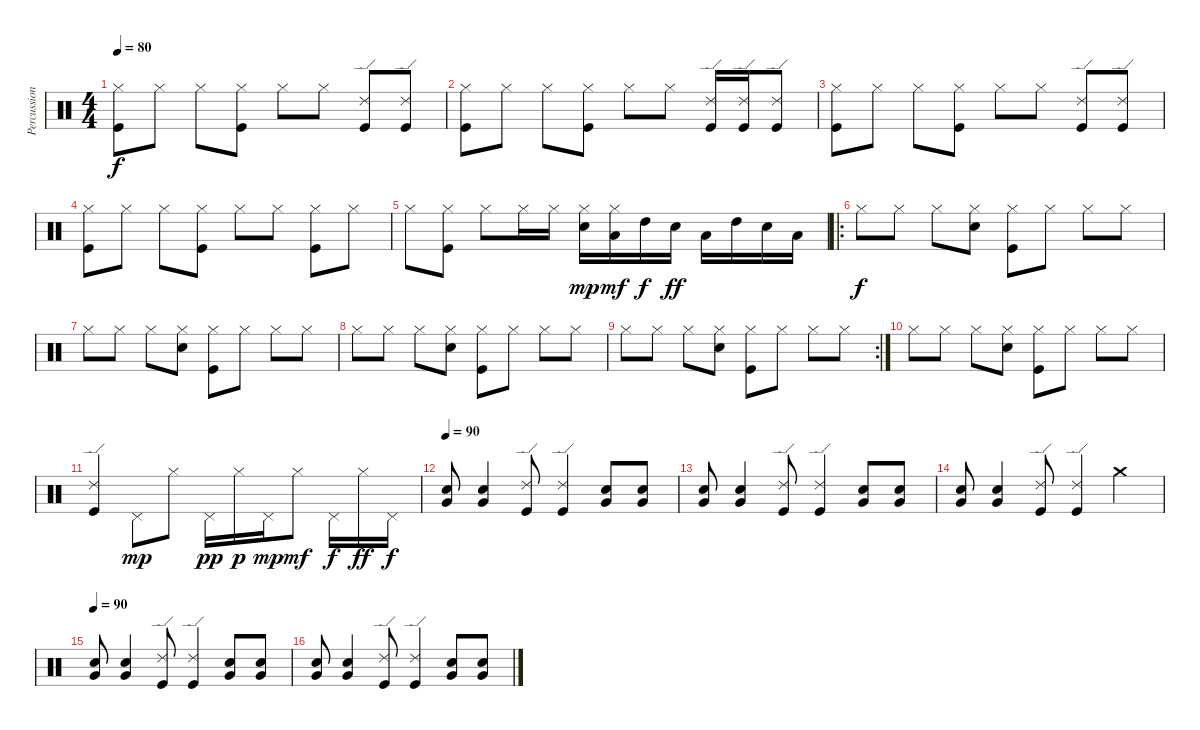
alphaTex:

\track ("Percussion" "Percussion") {instrument percussion}
\staff {score}
\articulation defaults
\ts (4 4)
\tempo 80
\clef neutral
\ks c
("Kick (hit)" "Hi-Hat (closed)").8{dy f} "Hi-Hat (closed)".8 "Hi-Hat (closed)".8 ("Kick (hit)" "Hi-Hat (closed)").8 "Hi-Hat (closed)".8 "Hi-Hat (closed)".8 ("Ride (edge) 2" "Kick (hit)").8 ("Ride (edge) 2" "Kick (hit)").8 |
("Kick (hit)" "Hi-Hat (closed)").8 "Hi-Hat (closed)".8 "Hi-Hat (closed)".8 ("Kick (hit)" "Hi-Hat (closed)").8 "Hi-Hat (closed)".8 "Hi-Hat (closed)".8 ("Ride (edge) 2" "Kick (hit)").16 ("Ride (edge) 2" "Kick (hit)").16 ("Ride (edge) 2" "Kick (hit)").8 |
("Kick (hit)" "Hi-Hat (closed)").8 "Hi-Hat (closed)".8 "Hi-Hat (closed)".8 ("Kick (hit)" "Hi-Hat (closed)").8 "Hi-Hat (closed)".8 "Hi-Hat (closed)".8 ("Ride (edge) 2" "Kick (hit)").8 ("Ride (edge) 2" "Kick (hit)").8 |
("Kick (hit)" "Hi-Hat (closed)").8 "Hi-Hat (closed)".8 "Hi-Hat (closed)".8 ("Kick (hit)" "Hi-Hat (closed)").8 "Hi-Hat (closed)".8 "Hi-Hat (closed)".8 ("Kick (hit)" "Hi-Hat (closed)").8 "Hi-Hat (closed)".8 |
"Hi-Hat (closed)".8 ("Kick (hit)" "Hi-Hat (closed)").8 "Hi-Hat (closed)".8 "Hi-Hat (closed)".16 "Hi-Hat (closed)".16 ("Snare (hit) 2" "Hi-Hat (closed)").16{dy mp} ("Low Tom (hit)" "Hi-Hat (closed)").16{dy mf} "High Tom (hit)".16{dy f} "Snare (hit) 2".16{dy ff} "Low Tom (hit)".16 "High Tom (hit)".16 "Snare (hit) 2".16 "Low Tom (hit)".16 |
\ro "Hi-Hat (closed)".8{dy f} "Hi-Hat (closed)".8 "Hi-Hat (closed)".8
("Snare (hit) 2" "Hi-Hat (closed)").8 ("Kick (hit)" "Hi-Hat (closed)").8 "Hi-Hat (closed)".8 "Hi-Hat (closed)".8 "Hi-Hat (closed)".8 |
"Hi-Hat (closed)".8 "Hi-Hat (closed)".8 "Hi-Hat (closed)".8 ("Snare (hit) 2" "Hi-Hat (closed)").8 ("Kick (hit)" "Hi-Hat (closed)").8 "Hi-Hat (closed)".8 "Hi-Hat (closed)".8 "Hi-Hat (closed)".8 |
"Hi-Hat (closed)".8 "Hi-Hat (closed)".8 "Hi-Hat (closed)".8 ("Snare (hit) 2" "Hi-Hat (closed)").8 ("Kick (hit)" "Hi-Hat (closed)").8 "Hi-Hat (closed)".8 "Hi-Hat (closed)".8 "Hi-Hat (closed)".8 |
\rc 2 "Hi-Hat (closed)".8 "Hi-Hat (closed)".8 "Hi-Hat (closed)".8
("Snare (hit) 2" "Hi-Hat (closed)").8 ("Kick (hit)" "Hi-Hat (closed)").8 "Hi-Hat (closed)".8 "Hi-Hat (closed)".8 "Hi-Hat (closed)".8 |
"Hi-Hat (closed)".8 "Hi-Hat (closed)".8 "Hi-Hat (closed)".8 ("Snare (hit) 2" "Hi-Hat (closed)").8 ("Kick (hit)" "Hi-Hat (closed)").8 "Hi-Hat (closed)".8 "Hi-Hat (closed)".8 "Hi-Hat (closed)".8 |
("Ride (edge) 2" "Kick (hit)").4 "Pedal Hi-Hat (hit)".8{dy mp} "Hi-Hat (closed)".8 "Pedal Hi-Hat (hit)".16{dy pp} "Hi-Hat (closed)".16{dy p} "Pedal Hi-Hat (hit)".16{dy mp} "Hi-Hat (closed)".8{dy mf} "Pedal Hi-Hat (hit)".16{dy f} "Hi-Hat (closed)".16{dy ff} "Pedal Hi-Hat (hit)".16{dy f} |
\tempo 90
("Very Low Tom (hit)" "Snare (hit) 2").8 ("Very Low Tom (hit)" "Snare (hit) 2").4 ("Ride (edge) 2" "Kick (hit)").8 ("Ride (edge) 2" "Kick (hit)").4 ("Very Low Tom (hit)" "Snare (hit) 2").8 ("Very Low Tom (hit)" "Snare (hit) 2").8 |
("Very Low Tom (hit)" "Snare (hit) 2").8 ("Very Low Tom (hit)" "Snare (hit) 2").4 ("Ride (edge) 2" "Kick (hit)").8 ("Ride (edge) 2" "Kick (hit)").4 ("Very Low Tom (hit)" "Snare (hit) 2").8 ("Very Low Tom (hit)" "Snare (hit) 2").8 |
("Very Low Tom (hit)" "Snare (hit) 2").8 ("Very Low Tom (hit)" "Snare (hit) 2").4 ("Ride (edge) 2" "Kick (hit)").8 ("Ride (edge) 2" "Kick (hit)").4 "Crash medium (hit)".4 |
\tempo 90
("Very Low Tom (hit)" "Snare (hit) 2").8 ("Very Low Tom (hit)" "Snare (hit) 2").4 ("Ride (edge) 2" "Kick (hit)").8 ("Ride (edge) 2" "Kick (hit)").4 ("Very Low Tom (hit)" "Snare (hit) 2").8 ("Very Low Tom (hit)" "Snare (hit) 2").8 |
("Very Low Tom (hit)" "Snare (hit) 2").8 ("Very Low Tom (hit)" "Snare (hit) 2").4 ("Ride (edge) 2" "Kick (hit)").8 ("Ride (edge) 2" "Kick (hit)").4 ("Very Low Tom (hit)" "Snare (hit) 2").8 ("Very Low Tom (hit)" "Snare (hit) 2").8
